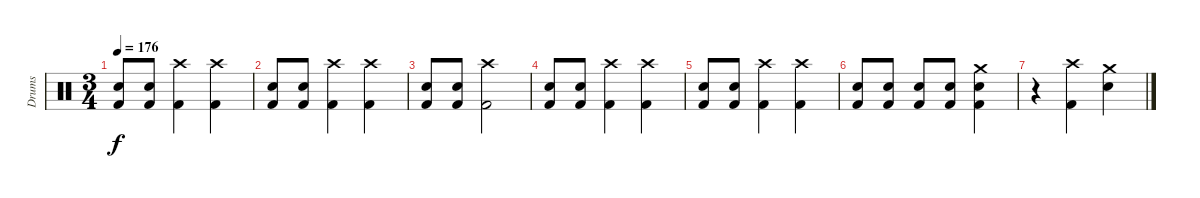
\track ("Drums" "Drums") {instrument percussion}
\staff {score}
\articulation defaults
\ts (3 4)
\tempo 176
\clef neutral
\ks c
("Snare (hit) 2" "Kick (hit) 2").8{dy f} ("Snare (hit) 2" "Kick (hit) 2").8 ("Crash high (hit)" "Kick (hit) 2").4 ("Crash high (hit)" "Kick (hit) 2").4 |
("Snare (hit) 2" "Kick (hit) 2").8 ("Snare (hit) 2" "Kick (hit) 2").8 ("Crash high (hit)" "Kick (hit) 2").4 ("Crash high (hit)" "Kick (hit) 2").4 |
("Snare (hit) 2" "Kick (hit) 2").8 ("Snare (hit) 2" "Kick (hit) 2").8 ("Crash high (hit)" "Kick (hit) 2").2 |
("Snare (hit) 2" "Kick (hit) 2").8 ("Snare (hit) 2" "Kick (hit) 2").8 ("Crash high (hit)" "Kick (hit) 2").4 ("Crash high (hit)" "Kick (hit) 2").4 |
("Snare (hit) 2" "Kick (hit) 2").8 ("Snare (hit) 2" "Kick (hit) 2").8 ("Crash high (hit)" "Kick (hit) 2").4 ("Crash high (hit)" "Kick (hit) 2").4 |
("Snare (hit) 2" "Kick (hit) 2").8 ("Snare (hit) 2" "Kick (hit) 2").8 ("Snare (hit) 2" "Kick (hit) 2").8 ("Snare (hit) 2" "Kick (hit) 2").8 ("Crash medium (hit)" "Snare (hit) 2" "Kick (hit) 2").4 |
r.4 ("Crash high (hit)" "Kick (hit) 2").4 ("Crash medium (hit)" "Snare (hit) 2").4
